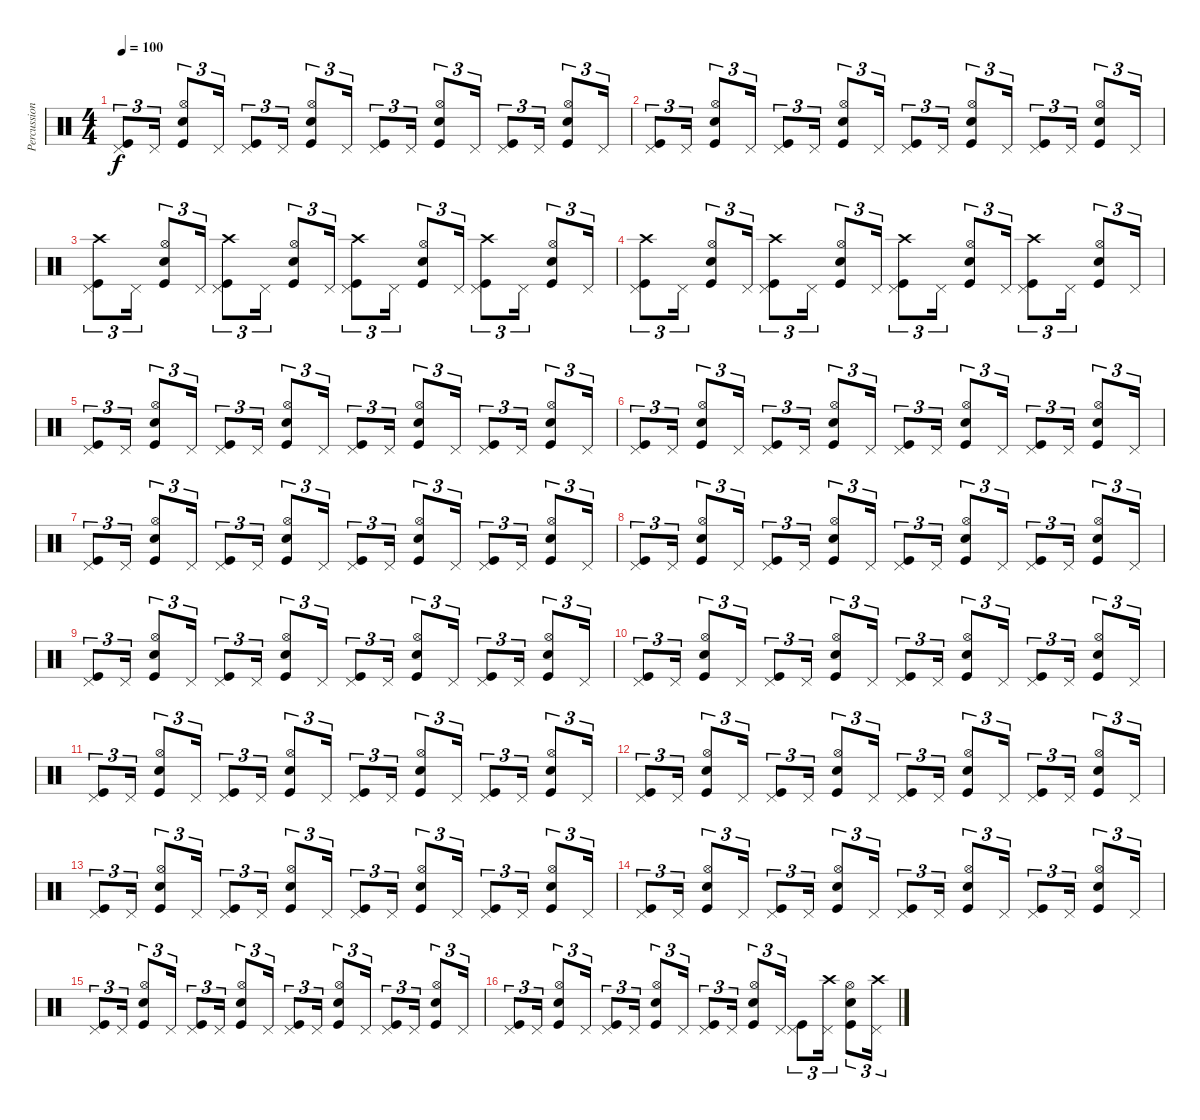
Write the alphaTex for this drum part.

\track ("Percussion" "Percussion") {instrument percussion}
\staff {score}
\articulation defaults
\ts (4 4)
\tempo 100
\clef neutral
\ks c
("Pedal Hi-Hat (hit)" "Kick (hit)").8{tu (3 2) dy f} "Pedal Hi-Hat (hit)".16{tu (3 2)} ("Hi-Hat (open)" "Electric Snare (hit)" "Kick (hit)").8{tu (3 2)} "Pedal Hi-Hat (hit)".16{tu (3 2)} ("Pedal Hi-Hat (hit)" "Kick (hit)").8{tu (3 2)} "Pedal Hi-Hat (hit)".16{tu (3 2)} ("Hi-Hat (open)" "Electric Snare (hit)" "Kick (hit)").8{tu (3 2)} "Pedal Hi-Hat (hit)".16{tu (3 2)} ("Pedal Hi-Hat (hit)" "Kick (hit)").8{tu (3 2)} "Pedal Hi-Hat (hit)".16{tu (3 2)} ("Hi-Hat (open)" "Electric Snare (hit)" "Kick (hit)").8{tu (3 2)} "Pedal Hi-Hat (hit)".16{tu (3 2)} ("Pedal Hi-Hat (hit)" "Kick (hit)").8{tu (3 2)} "Pedal Hi-Hat (hit)".16{tu (3 2)} ("Hi-Hat (open)" "Electric Snare (hit)" "Kick (hit)").8{tu (3 2)} "Pedal Hi-Hat (hit)".16{tu (3 2)} |
("Pedal Hi-Hat (hit)" "Kick (hit)").8{tu (3 2)} "Pedal Hi-Hat (hit)".16{tu (3 2)} ("Hi-Hat (open)" "Electric Snare (hit)" "Kick (hit)").8{tu (3 2)} "Pedal Hi-Hat (hit)".16{tu (3 2)} ("Pedal Hi-Hat (hit)" "Kick (hit)").8{tu (3 2)} "Pedal Hi-Hat (hit)".16{tu (3 2)} ("Hi-Hat (open)" "Electric Snare (hit)" "Kick (hit)").8{tu (3 2)} "Pedal Hi-Hat (hit)".16{tu (3 2)} ("Pedal Hi-Hat (hit)" "Kick (hit)").8{tu (3 2)} "Pedal Hi-Hat (hit)".16{tu (3 2)} ("Hi-Hat (open)" "Electric Snare (hit)" "Kick (hit)").8{tu (3 2)} "Pedal Hi-Hat (hit)".16{tu (3 2)} ("Pedal Hi-Hat (hit)" "Kick (hit)").8{tu (3 2)} "Pedal Hi-Hat (hit)".16{tu (3 2)} ("Hi-Hat (open)" "Electric Snare (hit)" "Kick (hit)").8{tu (3 2)} "Pedal Hi-Hat (hit)".16{tu (3 2)} |
("Crash high (hit)" "Pedal Hi-Hat (hit)" "Kick (hit)").8{tu (3 2)} "Pedal Hi-Hat (hit)".16{tu (3 2)} ("Hi-Hat (open)" "Electric Snare (hit)" "Kick (hit)").8{tu (3 2)} "Pedal Hi-Hat (hit)".16{tu (3 2)} ("Crash high (hit)" "Pedal Hi-Hat (hit)" "Kick (hit)").8{tu (3 2)} "Pedal Hi-Hat (hit)".16{tu (3 2)} ("Hi-Hat (open)" "Electric Snare (hit)" "Kick (hit)").8{tu (3 2)} "Pedal Hi-Hat (hit)".16{tu (3 2)} ("Crash high (hit)" "Pedal Hi-Hat (hit)" "Kick (hit)").8{tu (3 2)} "Pedal Hi-Hat (hit)".16{tu (3 2)} ("Hi-Hat (open)" "Electric Snare (hit)" "Kick (hit)").8{tu (3 2)} "Pedal Hi-Hat (hit)".16{tu (3 2)} ("Crash high (hit)" "Pedal Hi-Hat (hit)" "Kick (hit)").8{tu (3 2)} "Pedal Hi-Hat (hit)".16{tu (3 2)} ("Hi-Hat (open)" "Electric Snare (hit)" "Kick (hit)").8{tu (3 2)} "Pedal Hi-Hat (hit)".16{tu (3 2)} |
("Crash high (hit)" "Pedal Hi-Hat (hit)" "Kick (hit)").8{tu (3 2)} "Pedal Hi-Hat (hit)".16{tu (3 2)} ("Hi-Hat (open)" "Electric Snare (hit)" "Kick (hit)").8{tu (3 2)} "Pedal Hi-Hat (hit)".16{tu (3 2)} ("Crash high (hit)" "Pedal Hi-Hat (hit)" "Kick (hit)").8{tu (3 2)} "Pedal Hi-Hat (hit)".16{tu (3 2)} ("Hi-Hat (open)" "Electric Snare (hit)" "Kick (hit)").8{tu (3 2)} "Pedal Hi-Hat (hit)".16{tu (3 2)} ("Crash high (hit)" "Pedal Hi-Hat (hit)" "Kick (hit)").8{tu (3 2)} "Pedal Hi-Hat (hit)".16{tu (3 2)} ("Hi-Hat (open)" "Electric Snare (hit)" "Kick (hit)").8{tu (3 2)} "Pedal Hi-Hat (hit)".16{tu (3 2)} ("Crash high (hit)" "Pedal Hi-Hat (hit)" "Kick (hit)").8{tu (3 2)} "Pedal Hi-Hat (hit)".16{tu (3 2)} ("Hi-Hat (open)" "Electric Snare (hit)" "Kick (hit)").8{tu (3 2)} "Pedal Hi-Hat (hit)".16{tu (3 2)} |
("Pedal Hi-Hat (hit)" "Kick (hit)").8{tu (3 2)} "Pedal Hi-Hat (hit)".16{tu (3 2)} ("Hi-Hat (open)" "Electric Snare (hit)" "Kick (hit)").8{tu (3 2)} "Pedal Hi-Hat (hit)".16{tu (3 2)} ("Pedal Hi-Hat (hit)" "Kick (hit)").8{tu (3 2)} "Pedal Hi-Hat (hit)".16{tu (3 2)} ("Hi-Hat (open)" "Electric Snare (hit)" "Kick (hit)").8{tu (3 2)} "Pedal Hi-Hat (hit)".16{tu (3 2)} ("Pedal Hi-Hat (hit)" "Kick (hit)").8{tu (3 2)} "Pedal Hi-Hat (hit)".16{tu (3 2)} ("Hi-Hat (open)" "Electric Snare (hit)" "Kick (hit)").8{tu (3 2)} "Pedal Hi-Hat (hit)".16{tu (3 2)} ("Pedal Hi-Hat (hit)" "Kick (hit)").8{tu (3 2)} "Pedal Hi-Hat (hit)".16{tu (3 2)} ("Hi-Hat (open)" "Electric Snare (hit)" "Kick (hit)").8{tu (3 2)} "Pedal Hi-Hat (hit)".16{tu (3 2)} |
("Pedal Hi-Hat (hit)" "Kick (hit)").8{tu (3 2)} "Pedal Hi-Hat (hit)".16{tu (3 2)} ("Hi-Hat (open)" "Electric Snare (hit)" "Kick (hit)").8{tu (3 2)} "Pedal Hi-Hat (hit)".16{tu (3 2)} ("Pedal Hi-Hat (hit)" "Kick (hit)").8{tu (3 2)} "Pedal Hi-Hat (hit)".16{tu (3 2)} ("Hi-Hat (open)" "Electric Snare (hit)" "Kick (hit)").8{tu (3 2)} "Pedal Hi-Hat (hit)".16{tu (3 2)} ("Pedal Hi-Hat (hit)" "Kick (hit)").8{tu (3 2)} "Pedal Hi-Hat (hit)".16{tu (3 2)} ("Hi-Hat (open)" "Electric Snare (hit)" "Kick (hit)").8{tu (3 2)} "Pedal Hi-Hat (hit)".16{tu (3 2)} ("Pedal Hi-Hat (hit)" "Kick (hit)").8{tu (3 2)} "Pedal Hi-Hat (hit)".16{tu (3 2)} ("Hi-Hat (open)" "Electric Snare (hit)" "Kick (hit)").8{tu (3 2)} "Pedal Hi-Hat (hit)".16{tu (3 2)} |
("Pedal Hi-Hat (hit)" "Kick (hit)").8{tu (3 2)} "Pedal Hi-Hat (hit)".16{tu (3 2)} ("Hi-Hat (open)" "Electric Snare (hit)" "Kick (hit)").8{tu (3 2)} "Pedal Hi-Hat (hit)".16{tu (3 2)} ("Pedal Hi-Hat (hit)" "Kick (hit)").8{tu (3 2)} "Pedal Hi-Hat (hit)".16{tu (3 2)} ("Hi-Hat (open)" "Electric Snare (hit)" "Kick (hit)").8{tu (3 2)} "Pedal Hi-Hat (hit)".16{tu (3 2)} ("Pedal Hi-Hat (hit)" "Kick (hit)").8{tu (3 2)} "Pedal Hi-Hat (hit)".16{tu (3 2)} ("Hi-Hat (open)" "Electric Snare (hit)" "Kick (hit)").8{tu (3 2)} "Pedal Hi-Hat (hit)".16{tu (3 2)} ("Pedal Hi-Hat (hit)" "Kick (hit)").8{tu (3 2)} "Pedal Hi-Hat (hit)".16{tu (3 2)} ("Hi-Hat (open)" "Electric Snare (hit)" "Kick (hit)").8{tu (3 2)} "Pedal Hi-Hat (hit)".16{tu (3 2)} |
("Pedal Hi-Hat (hit)" "Kick (hit)").8{tu (3 2)} "Pedal Hi-Hat (hit)".16{tu (3 2)} ("Hi-Hat (open)" "Electric Snare (hit)" "Kick (hit)").8{tu (3 2)} "Pedal Hi-Hat (hit)".16{tu (3 2)} ("Pedal Hi-Hat (hit)" "Kick (hit)").8{tu (3 2)} "Pedal Hi-Hat (hit)".16{tu (3 2)} ("Hi-Hat (open)" "Electric Snare (hit)" "Kick (hit)").8{tu (3 2)} "Pedal Hi-Hat (hit)".16{tu (3 2)} ("Pedal Hi-Hat (hit)" "Kick (hit)").8{tu (3 2)} "Pedal Hi-Hat (hit)".16{tu (3 2)} ("Hi-Hat (open)" "Electric Snare (hit)" "Kick (hit)").8{tu (3 2)} "Pedal Hi-Hat (hit)".16{tu (3 2)} ("Pedal Hi-Hat (hit)" "Kick (hit)").8{tu (3 2)} "Pedal Hi-Hat (hit)".16{tu (3 2)} ("Hi-Hat (open)" "Electric Snare (hit)" "Kick (hit)").8{tu (3 2)} "Pedal Hi-Hat (hit)".16{tu (3 2)} |
("Pedal Hi-Hat (hit)" "Kick (hit)").8{tu (3 2)} "Pedal Hi-Hat (hit)".16{tu (3 2)} ("Hi-Hat (open)" "Electric Snare (hit)" "Kick (hit)").8{tu (3 2)} "Pedal Hi-Hat (hit)".16{tu (3 2)} ("Pedal Hi-Hat (hit)" "Kick (hit)").8{tu (3 2)} "Pedal Hi-Hat (hit)".16{tu (3 2)} ("Hi-Hat (open)" "Electric Snare (hit)" "Kick (hit)").8{tu (3 2)} "Pedal Hi-Hat (hit)".16{tu (3 2)} ("Pedal Hi-Hat (hit)" "Kick (hit)").8{tu (3 2)} "Pedal Hi-Hat (hit)".16{tu (3 2)} ("Hi-Hat (open)" "Electric Snare (hit)" "Kick (hit)").8{tu (3 2)} "Pedal Hi-Hat (hit)".16{tu (3 2)} ("Pedal Hi-Hat (hit)" "Kick (hit)").8{tu (3 2)} "Pedal Hi-Hat (hit)".16{tu (3 2)} ("Hi-Hat (open)" "Electric Snare (hit)" "Kick (hit)").8{tu (3 2)} "Pedal Hi-Hat (hit)".16{tu (3 2)} |
("Pedal Hi-Hat (hit)" "Kick (hit)").8{tu (3 2)} "Pedal Hi-Hat (hit)".16{tu (3 2)} ("Hi-Hat (open)" "Electric Snare (hit)" "Kick (hit)").8{tu (3 2)} "Pedal Hi-Hat (hit)".16{tu (3 2)} ("Pedal Hi-Hat (hit)" "Kick (hit)").8{tu (3 2)} "Pedal Hi-Hat (hit)".16{tu (3 2)} ("Hi-Hat (open)" "Electric Snare (hit)" "Kick (hit)").8{tu (3 2)} "Pedal Hi-Hat (hit)".16{tu (3 2)} ("Pedal Hi-Hat (hit)" "Kick (hit)").8{tu (3 2)} "Pedal Hi-Hat (hit)".16{tu (3 2)} ("Hi-Hat (open)" "Electric Snare (hit)" "Kick (hit)").8{tu (3 2)} "Pedal Hi-Hat (hit)".16{tu (3 2)} ("Pedal Hi-Hat (hit)" "Kick (hit)").8{tu (3 2)} "Pedal Hi-Hat (hit)".16{tu (3 2)} ("Hi-Hat (open)" "Electric Snare (hit)" "Kick (hit)").8{tu (3 2)} "Pedal Hi-Hat (hit)".16{tu (3 2)} |
("Pedal Hi-Hat (hit)" "Kick (hit)").8{tu (3 2)} "Pedal Hi-Hat (hit)".16{tu (3 2)} ("Hi-Hat (open)" "Electric Snare (hit)" "Kick (hit)").8{tu (3 2)} "Pedal Hi-Hat (hit)".16{tu (3 2)} ("Pedal Hi-Hat (hit)" "Kick (hit)").8{tu (3 2)} "Pedal Hi-Hat (hit)".16{tu (3 2)} ("Hi-Hat (open)" "Electric Snare (hit)" "Kick (hit)").8{tu (3 2)} "Pedal Hi-Hat (hit)".16{tu (3 2)} ("Pedal Hi-Hat (hit)" "Kick (hit)").8{tu (3 2)} "Pedal Hi-Hat (hit)".16{tu (3 2)} ("Hi-Hat (open)" "Electric Snare (hit)" "Kick (hit)").8{tu (3 2)} "Pedal Hi-Hat (hit)".16{tu (3 2)} ("Pedal Hi-Hat (hit)" "Kick (hit)").8{tu (3 2)} "Pedal Hi-Hat (hit)".16{tu (3 2)} ("Hi-Hat (open)" "Electric Snare (hit)" "Kick (hit)").8{tu (3 2)} "Pedal Hi-Hat (hit)".16{tu (3 2)} |
("Pedal Hi-Hat (hit)" "Kick (hit)").8{tu (3 2)} "Pedal Hi-Hat (hit)".16{tu (3 2)} ("Hi-Hat (open)" "Electric Snare (hit)" "Kick (hit)").8{tu (3 2)} "Pedal Hi-Hat (hit)".16{tu (3 2)} ("Pedal Hi-Hat (hit)" "Kick (hit)").8{tu (3 2)} "Pedal Hi-Hat (hit)".16{tu (3 2)} ("Hi-Hat (open)" "Electric Snare (hit)" "Kick (hit)").8{tu (3 2)} "Pedal Hi-Hat (hit)".16{tu (3 2)} ("Pedal Hi-Hat (hit)" "Kick (hit)").8{tu (3 2)} "Pedal Hi-Hat (hit)".16{tu (3 2)} ("Hi-Hat (open)" "Electric Snare (hit)" "Kick (hit)").8{tu (3 2)} "Pedal Hi-Hat (hit)".16{tu (3 2)} ("Pedal Hi-Hat (hit)" "Kick (hit)").8{tu (3 2)} "Pedal Hi-Hat (hit)".16{tu (3 2)} ("Hi-Hat (open)" "Electric Snare (hit)" "Kick (hit)").8{tu (3 2)} "Pedal Hi-Hat (hit)".16{tu (3 2)} |
("Pedal Hi-Hat (hit)" "Kick (hit)").8{tu (3 2)} "Pedal Hi-Hat (hit)".16{tu (3 2)} ("Hi-Hat (open)" "Electric Snare (hit)" "Kick (hit)").8{tu (3 2)} "Pedal Hi-Hat (hit)".16{tu (3 2)} ("Pedal Hi-Hat (hit)" "Kick (hit)").8{tu (3 2)} "Pedal Hi-Hat (hit)".16{tu (3 2)} ("Hi-Hat (open)" "Electric Snare (hit)" "Kick (hit)").8{tu (3 2)} "Pedal Hi-Hat (hit)".16{tu (3 2)} ("Pedal Hi-Hat (hit)" "Kick (hit)").8{tu (3 2)} "Pedal Hi-Hat (hit)".16{tu (3 2)} ("Hi-Hat (open)" "Electric Snare (hit)" "Kick (hit)").8{tu (3 2)} "Pedal Hi-Hat (hit)".16{tu (3 2)} ("Pedal Hi-Hat (hit)" "Kick (hit)").8{tu (3 2)} "Pedal Hi-Hat (hit)".16{tu (3 2)} ("Hi-Hat (open)" "Electric Snare (hit)" "Kick (hit)").8{tu (3 2)} "Pedal Hi-Hat (hit)".16{tu (3 2)} |
("Pedal Hi-Hat (hit)" "Kick (hit)").8{tu (3 2)} "Pedal Hi-Hat (hit)".16{tu (3 2)} ("Hi-Hat (open)" "Electric Snare (hit)" "Kick (hit)").8{tu (3 2)} "Pedal Hi-Hat (hit)".16{tu (3 2)} ("Pedal Hi-Hat (hit)" "Kick (hit)").8{tu (3 2)} "Pedal Hi-Hat (hit)".16{tu (3 2)} ("Hi-Hat (open)" "Electric Snare (hit)" "Kick (hit)").8{tu (3 2)} "Pedal Hi-Hat (hit)".16{tu (3 2)} ("Pedal Hi-Hat (hit)" "Kick (hit)").8{tu (3 2)} "Pedal Hi-Hat (hit)".16{tu (3 2)} ("Hi-Hat (open)" "Electric Snare (hit)" "Kick (hit)").8{tu (3 2)} "Pedal Hi-Hat (hit)".16{tu (3 2)} ("Pedal Hi-Hat (hit)" "Kick (hit)").8{tu (3 2)} "Pedal Hi-Hat (hit)".16{tu (3 2)} ("Hi-Hat (open)" "Electric Snare (hit)" "Kick (hit)").8{tu (3 2)} "Pedal Hi-Hat (hit)".16{tu (3 2)} |
("Pedal Hi-Hat (hit)" "Kick (hit)").8{tu (3 2)} "Pedal Hi-Hat (hit)".16{tu (3 2)} ("Hi-Hat (open)" "Electric Snare (hit)" "Kick (hit)").8{tu (3 2)} "Pedal Hi-Hat (hit)".16{tu (3 2)} ("Pedal Hi-Hat (hit)" "Kick (hit)").8{tu (3 2)} "Pedal Hi-Hat (hit)".16{tu (3 2)} ("Hi-Hat (open)" "Electric Snare (hit)" "Kick (hit)").8{tu (3 2)} "Pedal Hi-Hat (hit)".16{tu (3 2)} ("Pedal Hi-Hat (hit)" "Kick (hit)").8{tu (3 2)} "Pedal Hi-Hat (hit)".16{tu (3 2)} ("Hi-Hat (open)" "Electric Snare (hit)" "Kick (hit)").8{tu (3 2)} "Pedal Hi-Hat (hit)".16{tu (3 2)} ("Pedal Hi-Hat (hit)" "Kick (hit)").8{tu (3 2)} "Pedal Hi-Hat (hit)".16{tu (3 2)} ("Hi-Hat (open)" "Electric Snare (hit)" "Kick (hit)").8{tu (3 2)} "Pedal Hi-Hat (hit)".16{tu (3 2)} |
("Pedal Hi-Hat (hit)" "Kick (hit)").8{tu (3 2)} "Pedal Hi-Hat (hit)".16{tu (3 2)} ("Hi-Hat (open)" "Electric Snare (hit)" "Kick (hit)").8{tu (3 2)} "Pedal Hi-Hat (hit)".16{tu (3 2)} ("Pedal Hi-Hat (hit)" "Kick (hit)").8{tu (3 2)} "Pedal Hi-Hat (hit)".16{tu (3 2)} ("Hi-Hat (open)" "Electric Snare (hit)" "Kick (hit)").8{tu (3 2)} "Pedal Hi-Hat (hit)".16{tu (3 2)} ("Pedal Hi-Hat (hit)" "Kick (hit)").8{tu (3 2)} "Pedal Hi-Hat (hit)".16{tu (3 2)} ("Hi-Hat (open)" "Electric Snare (hit)" "Kick (hit)").8{tu (3 2)} "Pedal Hi-Hat (hit)".16{tu (3 2)} ("Pedal Hi-Hat (hit)" "Kick (hit)").8{tu (3 2)} ("Crash high (hit)" "Pedal Hi-Hat (hit)").16{tu (3 2)} ("Hi-Hat (open)" "Electric Snare (hit)" "Kick (hit)").8{tu (3 2)} ("Crash high (hit)" "Pedal Hi-Hat (hit)").16{tu (3 2)}
